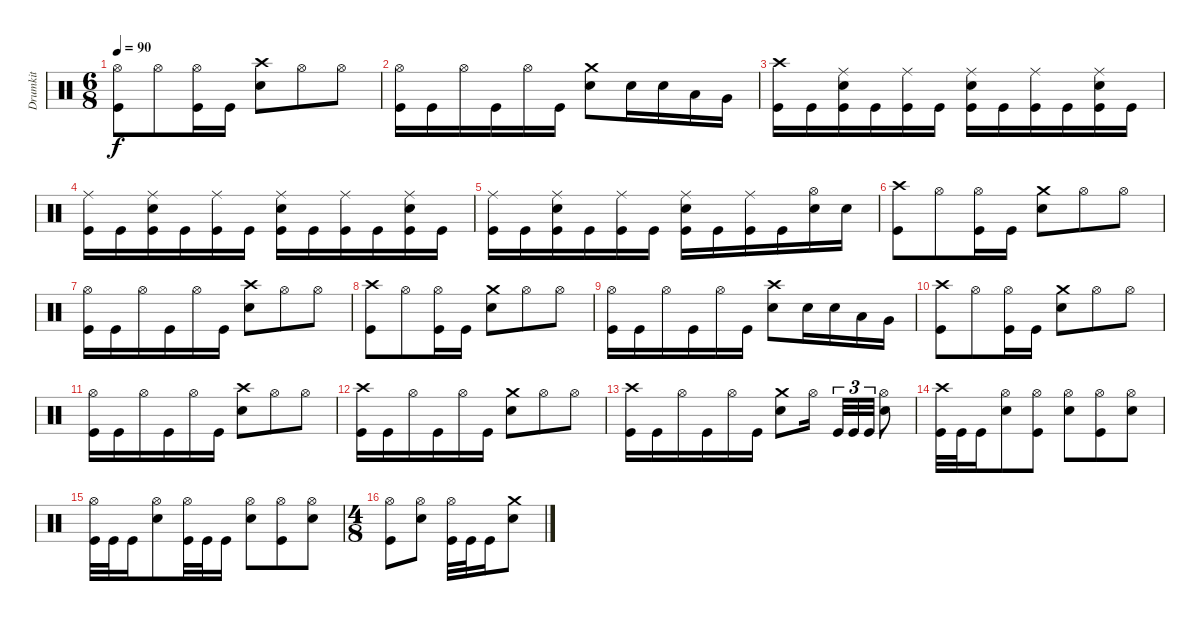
\track ("Drumkit" "Drumkit") {instrument percussion}
\staff {score}
\articulation defaults
\ts (6 8)
\tempo 90
\clef neutral
\ks c
("Hi-Hat (open)" "Kick (hit)").8{dy f} "Hi-Hat (open)".8 ("Hi-Hat (open)" "Kick (hit)").16 "Kick (hit)".16 ("Crash high (hit)" "Snare (hit) 2").8 "Hi-Hat (open)".8 "Hi-Hat (open)".8 |
("Hi-Hat (open)" "Kick (hit)").16 "Kick (hit)".16 "Hi-Hat (open)".16 "Kick (hit)".16 "Hi-Hat (open)".16 "Kick (hit)".16 ("Crash medium (hit)" "Snare (hit) 2").8 "Snare (hit) 2".16 "Snare (hit) 2".16 "Low Tom (hit)".16 "Very Low Tom (hit)".16 |
("Crash high (hit)" "Kick (hit)").16 "Kick (hit)".16 ("Ride (middle)" "Snare (hit) 2" "Kick (hit)").16 "Kick (hit)".16 ("Ride (middle)" "Kick (hit)").16 "Kick (hit)".16 ("Ride (middle)" "Snare (hit) 2" "Kick (hit)").16 "Kick (hit)".16 ("Ride (middle)" "Kick (hit)").16 "Kick (hit)".16 ("Ride (middle)" "Snare (hit) 2" "Kick (hit)").16 "Kick (hit)".16 |
("Ride (middle)" "Kick (hit)").16 "Kick (hit)".16 ("Ride (middle)" "Snare (hit) 2" "Kick (hit)").16 "Kick (hit)".16 ("Ride (middle)" "Kick (hit)").16 "Kick (hit)".16 ("Ride (middle)" "Snare (hit) 2" "Kick (hit)").16 "Kick (hit)".16 ("Ride (middle)" "Kick (hit)").16 "Kick (hit)".16 ("Ride (middle)" "Snare (hit) 2" "Kick (hit)").16 "Kick (hit)".16 |
("Ride (middle)" "Kick (hit)").16 "Kick (hit)".16 ("Ride (middle)" "Snare (hit) 2" "Kick (hit)").16 "Kick (hit)".16 ("Ride (middle)" "Kick (hit)").16 "Kick (hit)".16 ("Ride (middle)" "Snare (hit) 2" "Kick (hit)").16 "Kick (hit)".16 ("Ride (middle)" "Kick (hit)").16 "Kick (hit)".16 ("Hi-Hat (open)" "Snare (hit) 2").16 "Snare (hit) 2".16 |
("Crash high (hit)" "Kick (hit)").8 "Hi-Hat (open)".8 ("Hi-Hat (open)" "Kick (hit)").16 "Kick (hit)".16 ("Crash medium (hit)" "Snare (hit) 2").8 "Hi-Hat (open)".8 "Hi-Hat (open)".8 |
("Hi-Hat (open)" "Kick (hit)").16 "Kick (hit)".16 "Hi-Hat (open)".16 "Kick (hit)".16 "Hi-Hat (open)".16 "Kick (hit)".16 ("Crash high (hit)" "Snare (hit) 2").8 "Hi-Hat (open)".8 "Hi-Hat (open)".8 |
("Crash high (hit)" "Kick (hit)").8 "Hi-Hat (open)".8 ("Hi-Hat (open)" "Kick (hit)").16 "Kick (hit)".16 ("Crash medium (hit)" "Snare (hit) 2").8 "Hi-Hat (open)".8 "Hi-Hat (open)".8 |
("Hi-Hat (open)" "Kick (hit)").16 "Kick (hit)".16 "Hi-Hat (open)".16 "Kick (hit)".16 "Hi-Hat (open)".16 "Kick (hit)".16 ("Crash high (hit)" "Snare (hit) 2").8 "Snare (hit) 2".16 "Snare (hit) 2".16 "Low Tom (hit)".16 "Very Low Tom (hit)".16 |
("Crash high (hit)" "Kick (hit)").8 "Hi-Hat (open)".8 ("Hi-Hat (open)" "Kick (hit)").16 "Kick (hit)".16 ("Crash medium (hit)" "Snare (hit) 2").8 "Hi-Hat (open)".8 "Hi-Hat (open)".8 |
("Hi-Hat (open)" "Kick (hit)").16 "Kick (hit)".16 "Hi-Hat (open)".16 "Kick (hit)".16 "Hi-Hat (open)".16 "Kick (hit)".16 ("Crash high (hit)" "Snare (hit) 2").8 "Hi-Hat (open)".8 "Hi-Hat (open)".8 |
("Crash high (hit)" "Kick (hit)").16 "Kick (hit)".16 "Hi-Hat (open)".16 "Kick (hit)".16 "Hi-Hat (open)".16 "Kick (hit)".16 ("Crash medium (hit)" "Snare (hit) 2").8 "Hi-Hat (open)".8 "Hi-Hat (open)".8 |
("Crash high (hit)" "Kick (hit)").16 "Kick (hit)".16 "Hi-Hat (open)".16 "Kick (hit)".16 "Hi-Hat (open)".16 "Kick (hit)".16 ("Crash medium (hit)" "Snare (hit) 2").8 "Hi-Hat (open)".16{beam splitsecondary} "Kick (hit)".32{tu (3 2)} "Kick (hit)".32{tu (3 2)} "Kick (hit)".32{tu (3 2)} ("Hi-Hat (open)" "Snare (hit) 2").8 |
("Crash high (hit)" "Kick (hit)").32 "Kick (hit)".32 "Kick (hit)".16 ("Hi-Hat (open)" "Snare (hit) 2").8 ("Hi-Hat (open)" "Kick (hit)").8 ("Hi-Hat (open)" "Snare (hit) 2").8 ("Hi-Hat (open)" "Kick (hit)").8 ("Hi-Hat (open)" "Snare (hit) 2").8 |
("Hi-Hat (open)" "Kick (hit)").32 "Kick (hit)".32 "Kick (hit)".16 ("Hi-Hat (open)" "Snare (hit) 2").8 ("Hi-Hat (open)" "Kick (hit)").32 "Kick (hit)".32 "Kick (hit)".16 ("Hi-Hat (open)" "Snare (hit) 2").8 ("Hi-Hat (open)" "Kick (hit)").8 ("Hi-Hat (open)" "Snare (hit) 2").8 |
\ts (4 8)
("Hi-Hat (open)" "Kick (hit)").8 ("Hi-Hat (open)" "Snare (hit) 2").8 ("Hi-Hat (open)" "Kick (hit)").32 "Kick (hit)".32 "Kick (hit)".16 ("Crash medium (hit)" "Snare (hit) 2").8
